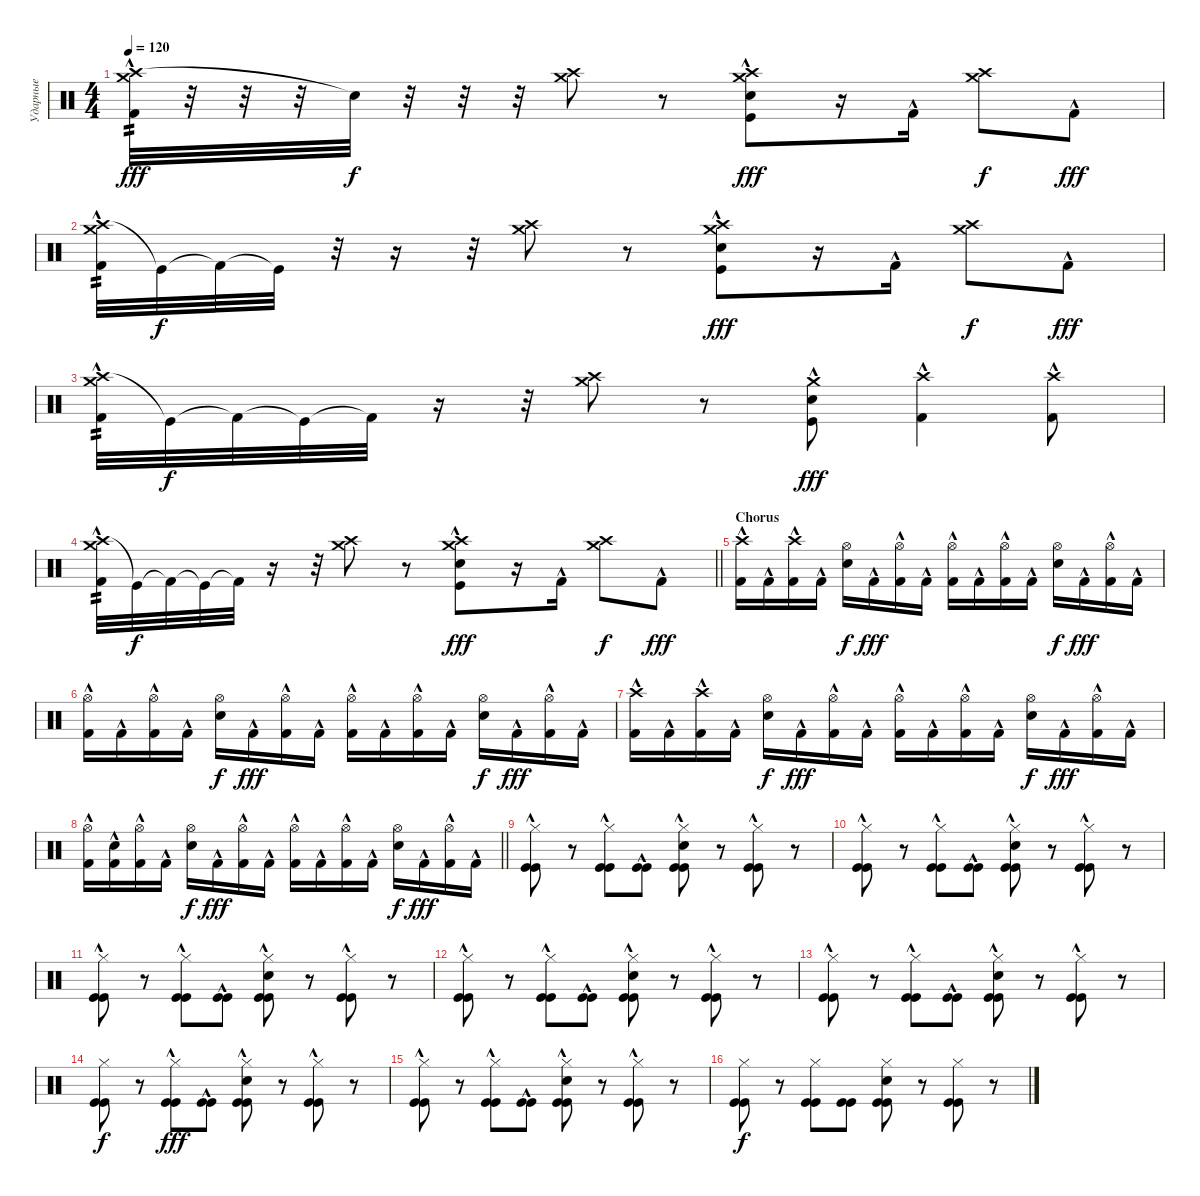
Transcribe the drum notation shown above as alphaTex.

\track ("Ударные" "Ударные") {instrument percussion}
\staff {score}
\articulation defaults
\ts (4 4)
\tempo 120
\clef neutral
\ks c
("Crash high (hit)"{hac} "Crash medium (hit)" "Kick (hit) 2"{hac}).32{tp 2 dy fff} r.32 r.32 r.32 "Snare (hit)"{t}.32{dy f} r.32 r.32 r.32 ("Crash high (hit)" "Crash medium (hit)").8 r.8 ("Crash high (hit)" "Crash medium (hit)" "Electric Snare (hit)" "Kick (hit)"{hac}).8{dy fff} r.16 "Kick (hit) 2"{hac}.16 ("Crash high (hit)" "Crash medium (hit)").8{dy f} "Kick (hit) 2"{hac}.8{dy fff} |
("Crash high (hit)"{hac} "Crash medium (hit)" "Kick (hit) 2"{hac}).32{tp 2} "Kick (hit)"{t}.32{dy f} "Kick (hit) 2"{t}.32 "Kick (hit)"{t}.32 r.32 r.16 r.32 ("Crash high (hit)" "Crash medium (hit)").8 r.8 ("Crash medium (hit)" "Crash high (hit)" "Electric Snare (hit)" "Kick (hit)"{hac}).8{dy fff} r.16 "Kick (hit) 2"{hac}.16 ("Crash medium (hit)" "Crash high (hit)").8{dy f} "Kick (hit) 2"{hac}.8{dy fff} |
("Crash high (hit)"{hac} "Crash medium (hit)" "Kick (hit) 2"{hac}).32{tp 2} "Kick (hit)"{t}.32{dy f} "Kick (hit) 2"{t}.32 "Kick (hit)"{t}.32 "Kick (hit) 2"{t}.32 r.16 r.32 ("Crash medium (hit)" "Crash high (hit)").8 r.8 ("Crash medium (hit)" "Electric Snare (hit)" "Kick (hit)"{hac}).8{dy fff} ("Crash high (hit)" "Kick (hit) 2"{hac}).4 ("Crash high (hit)" "Kick (hit) 2"{hac}).8 |
\barLineRight lightlight
("Crash high (hit)"{hac} "Crash medium (hit)" "Kick (hit) 2"{hac}).32{tp 2} "Kick (hit)"{t}.32{dy f} "Kick (hit) 2"{t}.32 "Kick (hit)"{t}.32 "Kick (hit) 2"{t}.32 r.16 r.32 ("Crash high (hit)" "Crash medium (hit)").8 r.8 ("Crash high (hit)" "Crash medium (hit)" "Electric Snare (hit)" "Kick (hit)"{hac}).8{dy fff} r.16 "Kick (hit) 2"{hac}.16 ("Crash high (hit)" "Crash medium (hit)").8{dy f} "Kick (hit) 2"{hac}.8{dy fff} |
\section ("" "Chorus")
("Kick (hit) 2"{hac} "Crash high (hit)").16 "Kick (hit) 2"{hac}.16 ("Kick (hit) 2"{hac} "Crash high (hit)").16 "Kick (hit) 2"{hac}.16 ("Snare (hit) 2" "Hi-Hat (open)").16{dy f} "Kick (hit) 2"{hac}.16{dy fff} ("Kick (hit) 2"{hac} "Hi-Hat (open)").16 "Kick (hit) 2"{hac}.16 ("Kick (hit) 2"{hac} "Hi-Hat (open)").16 "Kick (hit) 2"{hac}.16 ("Kick (hit) 2"{hac} "Hi-Hat (open)").16 "Kick (hit) 2"{hac}.16 ("Snare (hit) 2" "Hi-Hat (open)").16{dy f} "Kick (hit) 2"{hac}.16{dy fff} ("Kick (hit) 2"{hac} "Hi-Hat (open)").16 "Kick (hit) 2"{hac}.16 |
("Kick (hit) 2"{hac} "Hi-Hat (open)").16 "Kick (hit) 2"{hac}.16 ("Kick (hit) 2"{hac} "Hi-Hat (open)").16 "Kick (hit) 2"{hac}.16 ("Snare (hit) 2" "Hi-Hat (open)").16{dy f} "Kick (hit) 2"{hac}.16{dy fff} ("Kick (hit) 2"{hac} "Hi-Hat (open)").16 "Kick (hit) 2"{hac}.16 ("Kick (hit) 2"{hac} "Hi-Hat (open)").16 "Kick (hit) 2"{hac}.16 ("Kick (hit) 2"{hac} "Hi-Hat (open)").16 "Kick (hit) 2"{hac}.16 ("Snare (hit) 2" "Hi-Hat (open)").16{dy f} "Kick (hit) 2"{hac}.16{dy fff} ("Kick (hit) 2"{hac} "Hi-Hat (open)").16 "Kick (hit) 2"{hac}.16 |
("Kick (hit) 2"{hac} "Crash high (hit)").16 "Kick (hit) 2"{hac}.16 ("Kick (hit) 2"{hac} "Crash high (hit)").16 "Kick (hit) 2"{hac}.16 ("Snare (hit) 2" "Hi-Hat (open)").16{dy f} "Kick (hit) 2"{hac}.16{dy fff} ("Kick (hit) 2"{hac} "Hi-Hat (open)").16 "Kick (hit) 2"{hac}.16 ("Kick (hit) 2"{hac} "Hi-Hat (open)").16 "Kick (hit) 2"{hac}.16 ("Kick (hit) 2"{hac} "Hi-Hat (open)").16 "Kick (hit) 2"{hac}.16 ("Snare (hit) 2" "Hi-Hat (open)").16{dy f} "Kick (hit) 2"{hac}.16{dy fff} ("Kick (hit) 2"{hac} "Hi-Hat (open)").16 "Kick (hit) 2"{hac}.16 |
\barLineRight lightlight
("Kick (hit) 2"{hac} "Hi-Hat (open)").16 ("Kick (hit) 2"{hac} "Snare (hit)").16 ("Kick (hit) 2"{hac} "Hi-Hat (open)").16 "Kick (hit) 2"{hac}.16 ("Snare (hit) 2" "Hi-Hat (open)").16{dy f} "Kick (hit) 2"{hac}.16{dy fff} ("Kick (hit) 2"{hac} "Hi-Hat (open)").16 "Kick (hit) 2"{hac}.16 ("Kick (hit) 2"{hac} "Hi-Hat (open)").16 "Kick (hit) 2"{hac}.16 ("Kick (hit) 2"{hac} "Hi-Hat (open)").16 "Kick (hit) 2"{hac}.16 ("Snare (hit) 2" "Hi-Hat (open)").16{dy f} "Kick (hit) 2"{hac}.16{dy fff} ("Kick (hit) 2"{hac} "Hi-Hat (open)").16 "Kick (hit) 2"{hac}.16 |
("Hi-Hat (closed)" "Kick (hit)"{hac} "Kick (hit)"{hac}).8 r.8 ("Hi-Hat (closed)" "Kick (hit)"{hac} "Kick (hit)"{hac}).8 ("Kick (hit)"{hac} "Kick (hit)"{hac}).8 ("Hi-Hat (closed)" "Kick (hit)"{hac} "Kick (hit)"{hac} "Electric Snare (hit)").8 r.8 ("Hi-Hat (closed)" "Kick (hit)"{hac} "Kick (hit)"{hac}).8 r.8 |
("Hi-Hat (closed)" "Kick (hit)"{hac} "Kick (hit)"{hac}).8 r.8 ("Hi-Hat (closed)" "Kick (hit)"{hac} "Kick (hit)"{hac}).8 ("Kick (hit)"{hac} "Kick (hit)"{hac}).8 ("Hi-Hat (closed)" "Kick (hit)"{hac} "Kick (hit)"{hac} "Electric Snare (hit)").8 r.8 ("Hi-Hat (closed)" "Kick (hit)"{hac} "Kick (hit)"{hac}).8 r.8 |
("Hi-Hat (closed)" "Kick (hit)"{hac} "Kick (hit)"{hac}).8 r.8 ("Hi-Hat (closed)" "Kick (hit)"{hac} "Kick (hit)"{hac}).8 ("Kick (hit)"{hac} "Kick (hit)"{hac}).8 ("Hi-Hat (closed)" "Kick (hit)"{hac} "Kick (hit)"{hac} "Electric Snare (hit)").8 r.8 ("Hi-Hat (closed)" "Kick (hit)"{hac} "Kick (hit)"{hac}).8 r.8 |
("Hi-Hat (closed)" "Kick (hit)"{hac} "Kick (hit)"{hac}).8 r.8 ("Hi-Hat (closed)" "Kick (hit)"{hac} "Kick (hit)"{hac}).8 ("Kick (hit)"{hac} "Kick (hit)"{hac}).8 ("Hi-Hat (closed)" "Kick (hit)"{hac} "Kick (hit)"{hac} "Electric Snare (hit)").8 r.8 ("Hi-Hat (closed)" "Kick (hit)"{hac} "Kick (hit)"{hac}).8 r.8 |
("Hi-Hat (closed)" "Kick (hit)"{hac} "Kick (hit)"{hac}).8 r.8 ("Hi-Hat (closed)" "Kick (hit)"{hac} "Kick (hit)"{hac}).8 ("Kick (hit)"{hac} "Kick (hit)"{hac}).8 ("Hi-Hat (closed)" "Kick (hit)"{hac} "Kick (hit)"{hac} "Electric Snare (hit)").8 r.8 ("Hi-Hat (closed)" "Kick (hit)"{hac} "Kick (hit)"{hac}).8 r.8 |
("Hi-Hat (closed)" "Kick (hit)" "Kick (hit)").8{dy f} r.8 ("Hi-Hat (closed)" "Kick (hit)"{hac} "Kick (hit)"{hac}).8{dy fff} ("Kick (hit)"{hac} "Kick (hit)").8 ("Hi-Hat (closed)" "Kick (hit)"{hac} "Kick (hit)" "Electric Snare (hit)").8 r.8 ("Hi-Hat (closed)" "Kick (hit)"{hac} "Kick (hit)").8 r.8 |
("Hi-Hat (closed)" "Kick (hit)"{hac} "Kick (hit)").8 r.8 ("Hi-Hat (closed)" "Kick (hit)"{hac} "Kick (hit)").8 ("Kick (hit)"{hac} "Kick (hit)").8 ("Hi-Hat (closed)" "Kick (hit)"{hac} "Kick (hit)" "Electric Snare (hit)").8 r.8 ("Hi-Hat (closed)" "Kick (hit)"{hac} "Kick (hit)").8 r.8 |
("Hi-Hat (closed)" "Kick (hit)" "Kick (hit)").8{dy f} r.8 ("Hi-Hat (closed)" "Kick (hit)" "Kick (hit)").8 ("Kick (hit)" "Kick (hit)").8 ("Hi-Hat (closed)" "Kick (hit)" "Kick (hit)" "Electric Snare (hit)").8 r.8 ("Hi-Hat (closed)" "Kick (hit)" "Kick (hit)").8 r.8
